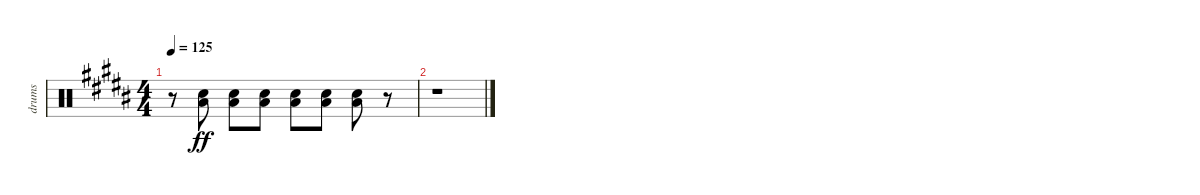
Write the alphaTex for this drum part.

\track ("drums" "drums") {instrument percussion}
\staff {score}
\articulation defaults
\ts (4 4)
\tempo 125
\clef neutral
\ks b
r.8{dy ff} ("Electric Snare (hit)" "Low Floor Tom (hit)").8 ("Electric Snare (hit)" "Low Floor Tom (hit)").8 ("Electric Snare (hit)" "Low Floor Tom (hit)").8 ("Electric Snare (hit)" "Low Floor Tom (hit)").8 ("Electric Snare (hit)" "Low Floor Tom (hit)").8 ("Electric Snare (hit)" "Low Floor Tom (hit)").8 r.8 |
r.1
